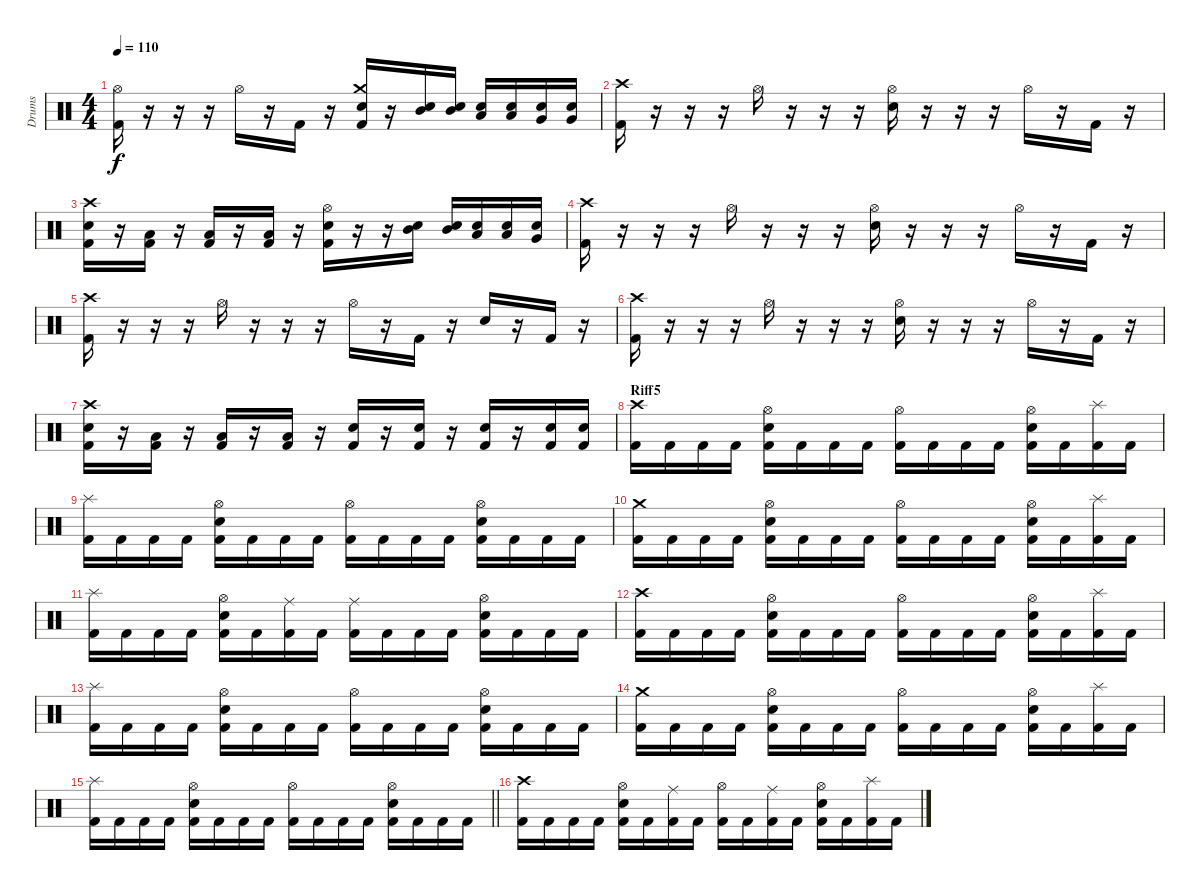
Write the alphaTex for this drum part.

\track ("Drums" "Drums") {instrument percussion}
\staff {score}
\articulation defaults
\ts (4 4)
\tempo 110
\clef neutral
\ks c
("Hi-Hat (open)" "Kick (hit) 2").16{dy f} r.16 r.16 r.16 "Hi-Hat (open)".16 r.16 "Kick (hit) 2".16 r.16 ("Crash medium (hit)" "Snare (hit) 2" "Kick (hit) 2").16 r.16 ("Snare (hit) 2" "Mid Tom (hit)").16 ("Snare (hit) 2" "Mid Tom (hit)").16 ("Snare (hit) 2" "Low Tom (hit)").16 ("Snare (hit) 2" "Low Tom (hit)").16 ("Snare (hit) 2" "Very Low Tom (hit)").16 ("Snare (hit) 2" "Very Low Tom (hit)").16 |
("Crash high (hit)" "Kick (hit) 2").16 r.16 r.16 r.16 "Hi-Hat (open)".16 r.16 r.16 r.16 ("Hi-Hat (open)" "Snare (hit) 2").16 r.16 r.16 r.16 "Hi-Hat (open)".16 r.16 "Kick (hit) 2".16 r.16 |
("Snare (hit) 2" "Crash high (hit)" "Kick (hit) 2").16 r.16 ("Low Floor Tom (hit)" "Kick (hit) 2").16 r.16 ("Low Floor Tom (hit)" "Kick (hit) 2").16 r.16 ("Low Floor Tom (hit)" "Kick (hit) 2").16 r.16 ("Hi-Hat (open)" "Snare (hit) 2" "Kick (hit) 2").16 r.16 r.16 ("Snare (hit) 2" "Mid Tom (hit)").16 ("Snare (hit) 2" "Mid Tom (hit)").16 ("Snare (hit) 2" "Low Tom (hit)").16 ("Snare (hit) 2" "Low Tom (hit)").16 ("Snare (hit) 2" "Very Low Tom (hit)").16 |
("Crash high (hit)" "Kick (hit) 2").16 r.16 r.16 r.16 "Hi-Hat (open)".16 r.16 r.16 r.16 ("Hi-Hat (open)" "Snare (hit) 2").16 r.16 r.16 r.16 "Hi-Hat (open)".16 r.16 "Kick (hit) 2".16 r.16 |
("Crash high (hit)" "Kick (hit) 2").16 r.16 r.16 r.16 "Hi-Hat (open)".16 r.16 r.16 r.16 "Hi-Hat (open)".16 r.16 "Kick (hit) 2".16 r.16 "Snare (hit) 2".16 r.16 "Kick (hit) 2".16 r.16 |
("Crash high (hit)" "Kick (hit) 2").16 r.16 r.16 r.16 "Hi-Hat (open)".16 r.16 r.16 r.16 ("Hi-Hat (open)" "Snare (hit) 2").16 r.16 r.16 r.16 "Hi-Hat (open)".16 r.16 "Kick (hit) 2".16 r.16 |
("Snare (hit) 2" "Crash high (hit)" "Kick (hit) 2").16 r.16 ("Low Floor Tom (hit)" "Kick (hit) 2").16 r.16 ("Low Floor Tom (hit)" "Kick (hit) 2").16 r.16 ("Low Floor Tom (hit)" "Kick (hit) 2").16 r.16 ("Snare (hit) 2" "Kick (hit) 2").16 r.16 ("Snare (hit) 2" "Kick (hit) 2").16 r.16 ("Snare (hit) 2" "Kick (hit) 2").16 r.16 ("Snare (hit) 2" "Kick (hit) 2").16 ("Snare (hit) 2" "Kick (hit) 2").16 |
\section ("" "Riff5")
("Crash high (hit)" "Kick (hit) 2").16 "Kick (hit) 2".16 "Kick (hit) 2".16 "Kick (hit) 2".16 ("Hi-Hat (open)" "Snare (hit) 2" "Kick (hit) 2").16 "Kick (hit) 2".16 "Kick (hit) 2".16 "Kick (hit) 2".16 ("Hi-Hat (open)" "Kick (hit) 2").16 "Kick (hit) 2".16 "Kick (hit) 2".16 "Kick (hit) 2".16 ("Hi-Hat (open)" "Snare (hit) 2" "Kick (hit) 2").16 "Kick (hit) 2".16 ("Splash (hit)" "Kick (hit) 2").16 "Kick (hit) 2".16 |
("Splash (hit)" "Kick (hit) 2").16 "Kick (hit) 2".16 "Kick (hit) 2".16 "Kick (hit) 2".16 ("Hi-Hat (open)" "Snare (hit) 2" "Kick (hit) 2").16 "Kick (hit) 2".16 "Kick (hit) 2".16 "Kick (hit) 2".16 ("Hi-Hat (open)" "Kick (hit) 2").16 "Kick (hit) 2".16 "Kick (hit) 2".16 "Kick (hit) 2".16 ("Hi-Hat (open)" "Snare (hit) 2" "Kick (hit) 2").16 "Kick (hit) 2".16 "Kick (hit) 2".16 "Kick (hit) 2".16 |
("Crash medium (hit)" "Kick (hit) 2").16 "Kick (hit) 2".16 "Kick (hit) 2".16 "Kick (hit) 2".16 ("Hi-Hat (open)" "Snare (hit) 2" "Kick (hit) 2").16 "Kick (hit) 2".16 "Kick (hit) 2".16 "Kick (hit) 2".16 ("Hi-Hat (open)" "Kick (hit) 2").16 "Kick (hit) 2".16 "Kick (hit) 2".16 "Kick (hit) 2".16 ("Hi-Hat (open)" "Snare (hit) 2" "Kick (hit) 2").16 "Kick (hit) 2".16 ("Splash (hit)" "Kick (hit) 2").16 "Kick (hit) 2".16 |
("Splash (hit)" "Kick (hit) 2").16 "Kick (hit) 2".16 "Kick (hit) 2".16 "Kick (hit) 2".16 ("Hi-Hat (open)" "Snare (hit) 2" "Kick (hit) 2").16 "Kick (hit) 2".16 ("Ride (middle)" "Kick (hit) 2").16 "Kick (hit) 2".16 ("Ride (middle)" "Kick (hit) 2").16 "Kick (hit) 2".16 "Kick (hit) 2".16 "Kick (hit) 2".16 ("Hi-Hat (open)" "Snare (hit) 2" "Kick (hit) 2").16 "Kick (hit) 2".16 "Kick (hit) 2".16 "Kick (hit) 2".16 |
("Crash high (hit)" "Kick (hit) 2").16 "Kick (hit) 2".16 "Kick (hit) 2".16 "Kick (hit) 2".16 ("Hi-Hat (open)" "Snare (hit) 2" "Kick (hit) 2").16 "Kick (hit) 2".16 "Kick (hit) 2".16 "Kick (hit) 2".16 ("Hi-Hat (open)" "Kick (hit) 2").16 "Kick (hit) 2".16 "Kick (hit) 2".16 "Kick (hit) 2".16 ("Hi-Hat (open)" "Snare (hit) 2" "Kick (hit) 2").16 "Kick (hit) 2".16 ("Splash (hit)" "Kick (hit) 2").16 "Kick (hit) 2".16 |
("Splash (hit)" "Kick (hit) 2").16 "Kick (hit) 2".16 "Kick (hit) 2".16 "Kick (hit) 2".16 ("Hi-Hat (open)" "Snare (hit) 2" "Kick (hit) 2").16 "Kick (hit) 2".16 "Kick (hit) 2".16 "Kick (hit) 2".16 ("Hi-Hat (open)" "Kick (hit) 2").16 "Kick (hit) 2".16 "Kick (hit) 2".16 "Kick (hit) 2".16 ("Hi-Hat (open)" "Snare (hit) 2" "Kick (hit) 2").16 "Kick (hit) 2".16 "Kick (hit) 2".16 "Kick (hit) 2".16 |
("Crash medium (hit)" "Kick (hit) 2").16 "Kick (hit) 2".16 "Kick (hit) 2".16 "Kick (hit) 2".16 ("Hi-Hat (open)" "Snare (hit) 2" "Kick (hit) 2").16 "Kick (hit) 2".16 "Kick (hit) 2".16 "Kick (hit) 2".16 ("Hi-Hat (open)" "Kick (hit) 2").16 "Kick (hit) 2".16 "Kick (hit) 2".16 "Kick (hit) 2".16 ("Hi-Hat (open)" "Snare (hit) 2" "Kick (hit) 2").16 "Kick (hit) 2".16 ("Splash (hit)" "Kick (hit) 2").16 "Kick (hit) 2".16 |
\barLineRight lightlight
("Splash (hit)" "Kick (hit) 2").16 "Kick (hit) 2".16 "Kick (hit) 2".16 "Kick (hit) 2".16 ("Hi-Hat (open)" "Snare (hit) 2" "Kick (hit) 2").16 "Kick (hit) 2".16 "Kick (hit) 2".16 "Kick (hit) 2".16 ("Hi-Hat (open)" "Kick (hit) 2").16 "Kick (hit) 2".16 "Kick (hit) 2".16 "Kick (hit) 2".16 ("Hi-Hat (open)" "Snare (hit) 2" "Kick (hit) 2").16 "Kick (hit) 2".16 "Kick (hit) 2".16 "Kick (hit) 2".16 |
("Crash high (hit)" "Kick (hit) 2").16 "Kick (hit) 2".16 "Kick (hit) 2".16 "Kick (hit) 2".16 ("Hi-Hat (open)" "Snare (hit) 2" "Kick (hit) 2").16 "Kick (hit) 2".16 ("Ride (middle)" "Kick (hit) 2").16 "Kick (hit) 2".16 ("Hi-Hat (open)" "Kick (hit) 2").16 "Kick (hit) 2".16 ("Ride (middle)" "Kick (hit) 2").16 "Kick (hit) 2".16 ("Hi-Hat (open)" "Snare (hit) 2" "Kick (hit) 2").16 "Kick (hit) 2".16 ("Splash (hit)" "Kick (hit) 2").16 "Kick (hit) 2".16
